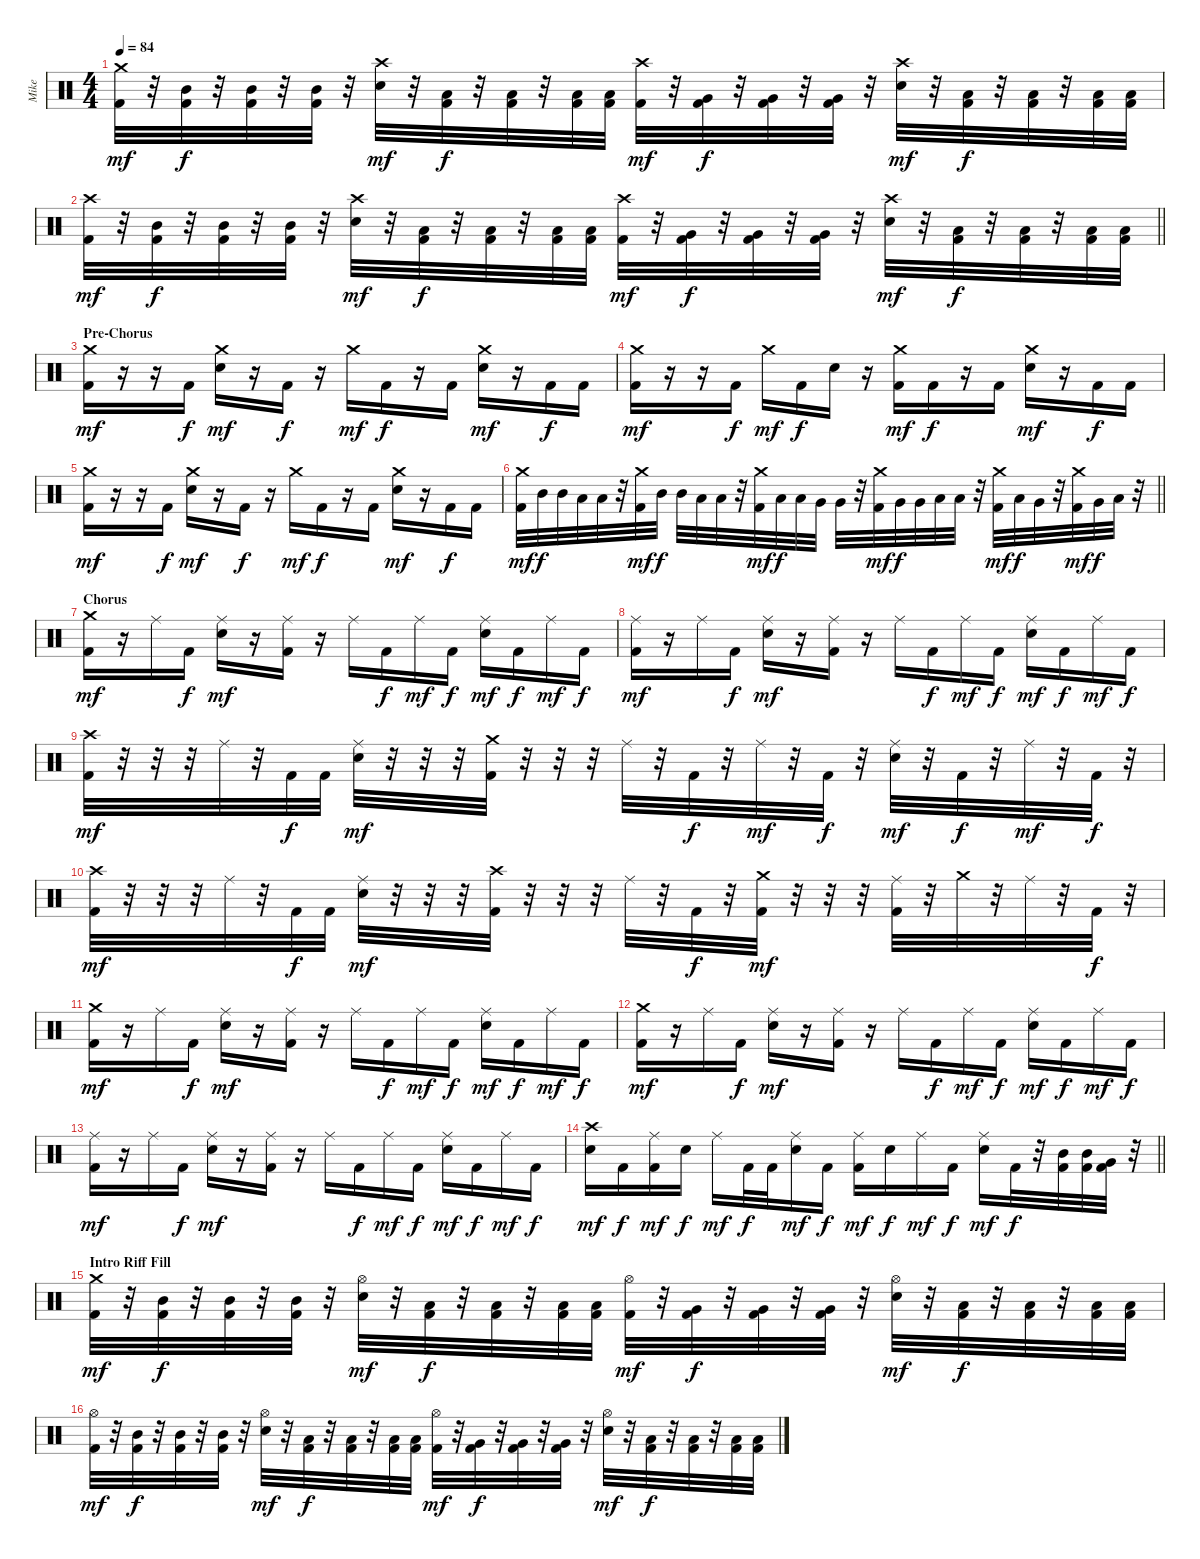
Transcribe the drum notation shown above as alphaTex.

\track ("Mike" "Mike") {instrument percussion}
\staff {score}
\articulation defaults
\ts (4 4)
\tempo 84
\clef neutral
\ks c
("Crash medium (hit)" "Kick (hit) 2").32{dy mf} r.32 ("Mid Tom (hit)" "Kick (hit) 2").32{dy f} r.32 ("Mid Tom (hit)" "Kick (hit) 2").32 r.32 ("Mid Tom (hit)" "Kick (hit) 2").32 r.32 ("Crash high (hit)" "Snare (hit) 2").32{dy mf} r.32 ("Low Tom (hit)" "Kick (hit) 2").32{dy f} r.32 ("Low Tom (hit)" "Kick (hit) 2").32 r.32 ("Low Tom (hit)" "Kick (hit) 2").32 ("Low Tom (hit)" "Kick (hit) 2").32 ("Crash high (hit)" "Kick (hit) 2").32{dy mf} r.32 ("Very Low Tom (hit)" "Kick (hit) 2").32{dy f} r.32 ("Very Low Tom (hit)" "Kick (hit) 2").32 r.32 ("Very Low Tom (hit)" "Kick (hit) 2").32 r.32 ("Crash high (hit)" "Snare (hit) 2").32{dy mf} r.32 ("Low Tom (hit)" "Kick (hit) 2").32{dy f} r.32 ("Low Tom (hit)" "Kick (hit) 2").32 r.32 ("Low Tom (hit)" "Kick (hit) 2").32 ("Low Tom (hit)" "Kick (hit) 2").32 |
\barLineRight lightlight
("Crash high (hit)" "Kick (hit) 2").32{dy mf} r.32 ("Mid Tom (hit)" "Kick (hit) 2").32{dy f} r.32 ("Mid Tom (hit)" "Kick (hit) 2").32 r.32 ("Mid Tom (hit)" "Kick (hit) 2").32 r.32 ("Crash high (hit)" "Snare (hit) 2").32{dy mf} r.32 ("Low Tom (hit)" "Kick (hit) 2").32{dy f} r.32 ("Low Tom (hit)" "Kick (hit) 2").32 r.32 ("Low Tom (hit)" "Kick (hit) 2").32 ("Low Tom (hit)" "Kick (hit) 2").32 ("Crash high (hit)" "Kick (hit) 2").32{dy mf} r.32 ("Very Low Tom (hit)" "Kick (hit) 2").32{dy f} r.32 ("Very Low Tom (hit)" "Kick (hit) 2").32 r.32 ("Very Low Tom (hit)" "Kick (hit) 2").32 r.32 ("Crash high (hit)" "Snare (hit) 2").32{dy mf} r.32 ("Low Tom (hit)" "Kick (hit) 2").32{dy f} r.32 ("Low Tom (hit)" "Kick (hit) 2").32 r.32 ("Low Tom (hit)" "Kick (hit) 2").32 ("Low Tom (hit)" "Kick (hit) 2").32 |
\section ("" "Pre-Chorus")
("Crash medium (hit)" "Kick (hit) 2").16{dy mf} r.16 r.16 "Kick (hit) 2".16{dy f} ("Crash medium (hit)" "Snare (hit) 2").16{dy mf} r.16 "Kick (hit) 2".16{dy f} r.16 "Crash medium (hit)".16{dy mf} "Kick (hit) 2".16{dy f} r.16 "Kick (hit) 2".16 ("Crash medium (hit)" "Snare (hit) 2").16{dy mf} r.16 "Kick (hit) 2".16{dy f} "Kick (hit) 2".16 |
("Crash medium (hit)" "Kick (hit) 2").16{dy mf} r.16 r.16 "Kick (hit) 2".16{dy f} "Crash medium (hit)".16{dy mf} "Kick (hit) 2".16{dy f} "Snare (hit) 2".16 r.16 ("Crash medium (hit)" "Kick (hit) 2").16{dy mf} "Kick (hit) 2".16{dy f} r.16 "Kick (hit) 2".16 ("Crash medium (hit)" "Snare (hit) 2").16{dy mf} r.16 "Kick (hit) 2".16{dy f} "Kick (hit) 2".16 |
("Crash medium (hit)" "Kick (hit) 2").16{dy mf} r.16 r.16 "Kick (hit) 2".16{dy f} ("Crash medium (hit)" "Snare (hit) 2").16{dy mf} r.16 "Kick (hit) 2".16{dy f} r.16 "Crash medium (hit)".16{dy mf} "Kick (hit) 2".16{dy f} r.16 "Kick (hit) 2".16 ("Crash medium (hit)" "Snare (hit) 2").16{dy mf} r.16 "Kick (hit) 2".16{dy f} "Kick (hit) 2".16 |
\barLineRight lightlight
("Crash medium (hit)" "Kick (hit) 2").32{dy mf} "Mid Tom (hit)".32{dy f} "Mid Tom (hit)".32 "Low Tom (hit)".32 "Low Tom (hit)".32 r.32 ("Crash medium (hit)" "Kick (hit) 2").32{dy mf} "Mid Tom (hit)".32{dy f} "Mid Tom (hit)".32 "Low Tom (hit)".32 "Low Tom (hit)".32 r.32 ("Crash medium (hit)" "Kick (hit) 2").32{dy mf} "Low Tom (hit)".32{dy f} "Low Tom (hit)".32 "Very Low Tom (hit)".32 "Very Low Tom (hit)".32 r.32 ("Crash medium (hit)" "Kick (hit) 2").32{dy mf} "Very Low Tom (hit)".32{dy f} "Very Low Tom (hit)".32 "Low Floor Tom (hit)".32 "Low Floor Tom (hit)".32 r.32 ("Crash medium (hit)" "Kick (hit) 2").32{dy mf} "Low Tom (hit)".32{dy f} "Very Low Tom (hit)".32 r.32 ("Crash medium (hit)" "Kick (hit) 2").32{dy mf} "Very Low Tom (hit)".32{dy f} "Low Floor Tom (hit)".32 r.32 |
\section ("" "Chorus")
("Crash medium (hit)" "Kick (hit) 2").16{dy mf} r.16 "Ride (middle)".16 "Kick (hit) 2".16{dy f} ("Ride (middle)" "Snare (hit) 2").16{dy mf} r.16 ("Ride (middle)" "Kick (hit) 2").16 r.16 "Ride (middle)".16 "Kick (hit) 2".16{dy f} "Ride (middle)".16{dy mf} "Kick (hit) 2".16{dy f} ("Ride (middle)" "Snare (hit) 2").16{dy mf} "Kick (hit) 2".16{dy f} "Ride (middle)".16{dy mf} "Kick (hit) 2".16{dy f} |
("Ride (middle)" "Kick (hit) 2").16{dy mf} r.16 "Ride (middle)".16 "Kick (hit) 2".16{dy f} ("Ride (middle)" "Snare (hit) 2").16{dy mf} r.16 ("Ride (middle)" "Kick (hit) 2").16 r.16 "Ride (middle)".16 "Kick (hit) 2".16{dy f} "Ride (middle)".16{dy mf} "Kick (hit) 2".16{dy f} ("Ride (middle)" "Snare (hit) 2").16{dy mf} "Kick (hit) 2".16{dy f} "Ride (middle)".16{dy mf} "Kick (hit) 2".16{dy f} |
("Crash high (hit)" "Kick (hit) 2").32{dy mf} r.32 r.32 r.32 "Ride (middle)".32 r.32 "Kick (hit) 2".32{dy f} "Kick (hit) 2".32 ("Ride (middle)" "Snare (hit) 2").32{dy mf} r.32 r.32 r.32 ("Crash medium (hit)" "Kick (hit) 2").32 r.32 r.32 r.32 "Ride (middle)".32 r.32 "Kick (hit) 2".32{dy f} r.32 "Ride (middle)".32{dy mf} r.32 "Kick (hit) 2".32{dy f} r.32 ("Ride (middle)" "Snare (hit) 2").32{dy mf} r.32 "Kick (hit) 2".32{dy f} r.32 "Ride (middle)".32{dy mf} r.32 "Kick (hit) 2".32{dy f} r.32 |
("Crash high (hit)" "Kick (hit) 2").32{dy mf} r.32 r.32 r.32 "Ride (middle)".32 r.32 "Kick (hit) 2".32{dy f} "Kick (hit) 2".32 ("Ride (middle)" "Snare (hit) 2").32{dy mf} r.32 r.32 r.32 ("Crash high (hit)" "Kick (hit) 2").32 r.32 r.32 r.32 "Ride (middle)".32 r.32 "Kick (hit) 2".32{dy f} r.32 ("Crash medium (hit)" "Kick (hit) 2").32{dy mf} r.32 r.32 r.32 ("Ride (middle)" "Kick (hit) 2").32 r.32 "Crash medium (hit)".32 r.32 "Ride (middle)".32 r.32 "Kick (hit) 2".32{dy f} r.32 |
("Crash medium (hit)" "Kick (hit) 2").16{dy mf} r.16 "Ride (middle)".16 "Kick (hit) 2".16{dy f} ("Ride (middle)" "Snare (hit) 2").16{dy mf} r.16 ("Ride (middle)" "Kick (hit) 2").16 r.16 "Ride (middle)".16 "Kick (hit) 2".16{dy f} "Ride (middle)".16{dy mf} "Kick (hit) 2".16{dy f} ("Ride (middle)" "Snare (hit) 2").16{dy mf} "Kick (hit) 2".16{dy f} "Ride (middle)".16{dy mf} "Kick (hit) 2".16{dy f} |
("Crash medium (hit)" "Kick (hit) 2").16{dy mf} r.16 "Ride (middle)".16 "Kick (hit) 2".16{dy f} ("Ride (middle)" "Snare (hit) 2").16{dy mf} r.16 ("Ride (middle)" "Kick (hit) 2").16 r.16 "Ride (middle)".16 "Kick (hit) 2".16{dy f} "Ride (middle)".16{dy mf} "Kick (hit) 2".16{dy f} ("Ride (middle)" "Snare (hit) 2").16{dy mf} "Kick (hit) 2".16{dy f} "Ride (middle)".16{dy mf} "Kick (hit) 2".16{dy f} |
("Ride (middle)" "Kick (hit) 2").16{dy mf} r.16 "Ride (middle)".16 "Kick (hit) 2".16{dy f} ("Ride (middle)" "Snare (hit) 2").16{dy mf} r.16 ("Ride (middle)" "Kick (hit) 2").16 r.16 "Ride (middle)".16 "Kick (hit) 2".16{dy f} "Ride (middle)".16{dy mf} "Kick (hit) 2".16{dy f} ("Ride (middle)" "Snare (hit) 2").16{dy mf} "Kick (hit) 2".16{dy f} "Ride (middle)".16{dy mf} "Kick (hit) 2".16{dy f} |
\barLineRight lightlight
("Crash high (hit)" "Snare (hit) 2").16{dy mf} "Kick (hit) 2".16{dy f} ("Ride (middle)" "Kick (hit) 2").16{dy mf} "Snare (hit) 2".16{dy f} "Ride (middle)".16{dy mf} "Kick (hit) 2".32{dy f} "Kick (hit) 2".32 ("Ride (middle)" "Snare (hit) 2").16{dy mf} "Kick (hit) 2".16{dy f} ("Ride (middle)" "Kick (hit) 2").16{dy mf} "Snare (hit) 2".16{dy f} "Ride (middle)".16{dy mf} "Kick (hit) 2".16{dy f} ("Ride (middle)" "Snare (hit) 2").16{dy mf} "Kick (hit) 2".32{dy f} r.32 ("Mid Tom (hit)" "Kick (hit) 2").32 ("Mid Tom (hit)" "Kick (hit) 2").32 ("Very Low Tom (hit)" "Kick (hit) 2").32 r.32 |
\section ("" "Intro Riff Fill")
("Crash medium (hit)" "Kick (hit) 2").32{dy mf} r.32 ("Mid Tom (hit)" "Kick (hit) 2").32{dy f} r.32 ("Mid Tom (hit)" "Kick (hit) 2").32 r.32 ("Mid Tom (hit)" "Kick (hit) 2").32 r.32 ("Hi-Hat (open)" "Snare (hit) 2").32{dy mf} r.32 ("Low Tom (hit)" "Kick (hit) 2").32{dy f} r.32 ("Low Tom (hit)" "Kick (hit) 2").32 r.32 ("Low Tom (hit)" "Kick (hit) 2").32 ("Low Tom (hit)" "Kick (hit) 2").32 ("Hi-Hat (open)" "Kick (hit) 2").32{dy mf} r.32 ("Very Low Tom (hit)" "Kick (hit) 2").32{dy f} r.32 ("Very Low Tom (hit)" "Kick (hit) 2").32 r.32 ("Very Low Tom (hit)" "Kick (hit) 2").32 r.32 ("Hi-Hat (open)" "Snare (hit) 2").32{dy mf} r.32 ("Low Tom (hit)" "Kick (hit) 2").32{dy f} r.32 ("Low Tom (hit)" "Kick (hit) 2").32 r.32 ("Low Tom (hit)" "Kick (hit) 2").32 ("Low Tom (hit)" "Kick (hit) 2").32 |
("Hi-Hat (open)" "Kick (hit) 2").32{dy mf} r.32 ("Mid Tom (hit)" "Kick (hit) 2").32{dy f} r.32 ("Mid Tom (hit)" "Kick (hit) 2").32 r.32 ("Mid Tom (hit)" "Kick (hit) 2").32 r.32 ("Hi-Hat (open)" "Snare (hit) 2").32{dy mf} r.32 ("Low Tom (hit)" "Kick (hit) 2").32{dy f} r.32 ("Low Tom (hit)" "Kick (hit) 2").32 r.32 ("Low Tom (hit)" "Kick (hit) 2").32 ("Low Tom (hit)" "Kick (hit) 2").32 ("Hi-Hat (open)" "Kick (hit) 2").32{dy mf} r.32 ("Very Low Tom (hit)" "Kick (hit) 2").32{dy f} r.32 ("Very Low Tom (hit)" "Kick (hit) 2").32 r.32 ("Very Low Tom (hit)" "Kick (hit) 2").32 r.32 ("Hi-Hat (open)" "Snare (hit) 2").32{dy mf} r.32 ("Low Tom (hit)" "Kick (hit) 2").32{dy f} r.32 ("Low Tom (hit)" "Kick (hit) 2").32 r.32 ("Low Tom (hit)" "Kick (hit) 2").32 ("Low Tom (hit)" "Kick (hit) 2").32
